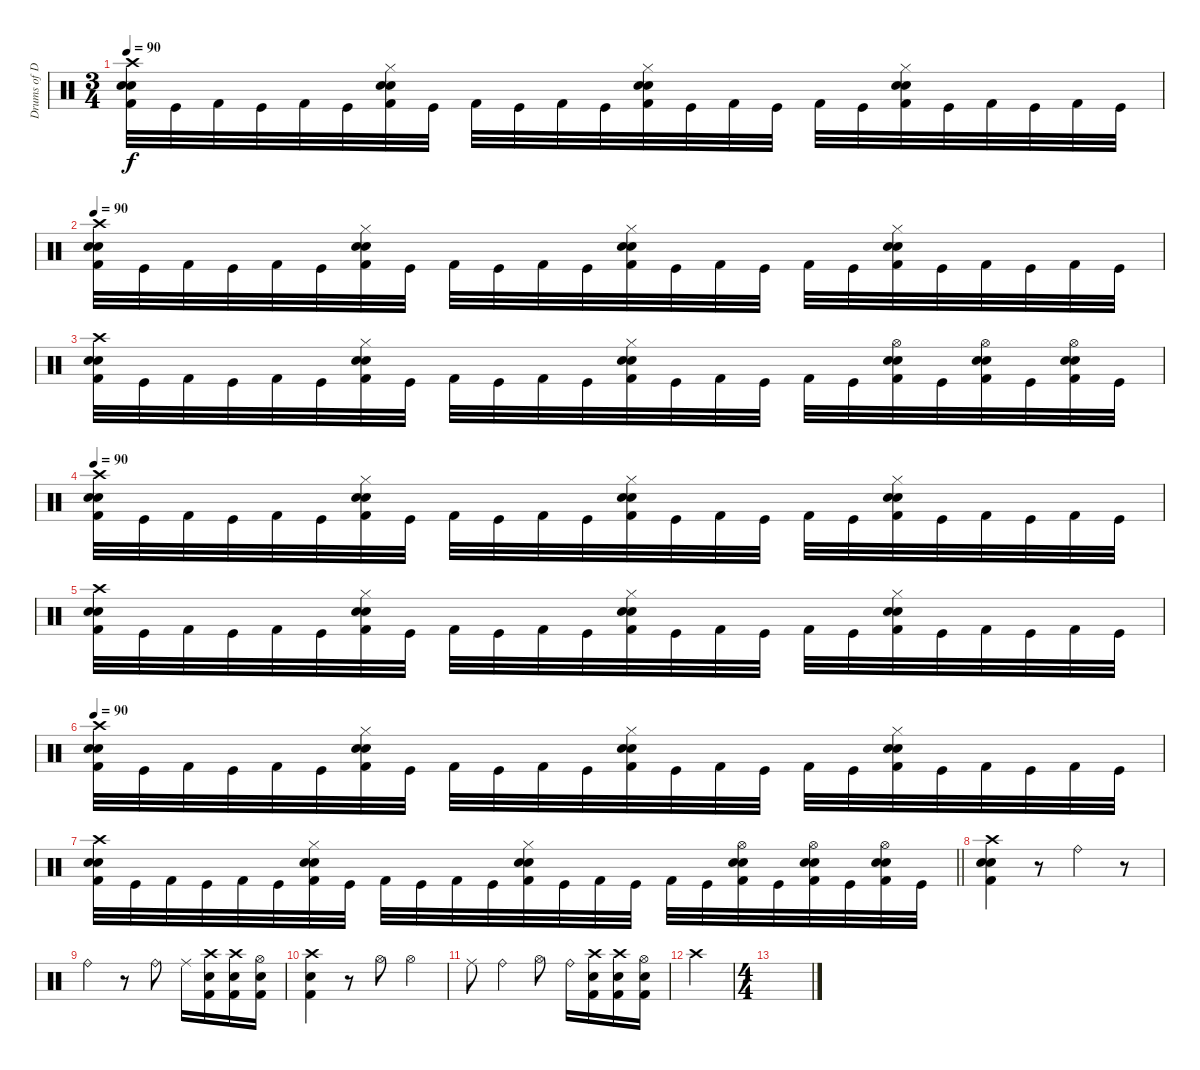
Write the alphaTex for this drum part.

\track ("Drums of Doom" "Drums of D") {instrument percussion}
\staff {score}
\articulation defaults
\ts (3 4)
\tempo 90
\clef neutral
\ks c
("Crash high (hit)" "Electric Snare (hit)" "Snare (hit) 2" "Kick (hit) 2").32{dy f} "Kick (hit)".32 "Kick (hit) 2".32 "Kick (hit)".32 "Kick (hit) 2".32 "Kick (hit)".32 ("Hi-Hat (closed)" "Electric Snare (hit)" "Snare (hit) 2" "Kick (hit) 2").32 "Kick (hit)".32 "Kick (hit) 2".32 "Kick (hit)".32 "Kick (hit) 2".32 "Kick (hit)".32 ("Hi-Hat (closed)" "Electric Snare (hit)" "Snare (hit) 2" "Kick (hit) 2").32 "Kick (hit)".32 "Kick (hit) 2".32 "Kick (hit)".32 "Kick (hit) 2".32 "Kick (hit)".32 ("Hi-Hat (closed)" "Electric Snare (hit)" "Snare (hit) 2" "Kick (hit) 2").32 "Kick (hit)".32 "Kick (hit) 2".32 "Kick (hit)".32 "Kick (hit) 2".32 "Kick (hit)".32 |
\tempo 90
("Crash high (hit)" "Electric Snare (hit)" "Snare (hit) 2" "Kick (hit) 2").32 "Kick (hit)".32 "Kick (hit) 2".32 "Kick (hit)".32 "Kick (hit) 2".32 "Kick (hit)".32 ("Hi-Hat (closed)" "Electric Snare (hit)" "Snare (hit) 2" "Kick (hit) 2").32 "Kick (hit)".32 "Kick (hit) 2".32 "Kick (hit)".32 "Kick (hit) 2".32 "Kick (hit)".32 ("Hi-Hat (closed)" "Electric Snare (hit)" "Snare (hit) 2" "Kick (hit) 2").32 "Kick (hit)".32 "Kick (hit) 2".32 "Kick (hit)".32 "Kick (hit) 2".32 "Kick (hit)".32 ("Hi-Hat (closed)" "Electric Snare (hit)" "Snare (hit) 2" "Kick (hit) 2").32 "Kick (hit)".32 "Kick (hit) 2".32 "Kick (hit)".32 "Kick (hit) 2".32 "Kick (hit)".32 |
("Crash high (hit)" "Electric Snare (hit)" "Snare (hit) 2" "Kick (hit) 2").32 "Kick (hit)".32 "Kick (hit) 2".32 "Kick (hit)".32 "Kick (hit) 2".32 "Kick (hit)".32 ("Hi-Hat (closed)" "Electric Snare (hit)" "Snare (hit) 2" "Kick (hit) 2").32 "Kick (hit)".32 "Kick (hit) 2".32 "Kick (hit)".32 "Kick (hit) 2".32 "Kick (hit)".32 ("Hi-Hat (closed)" "Electric Snare (hit)" "Snare (hit) 2" "Kick (hit) 2").32 "Kick (hit)".32 "Kick (hit) 2".32 "Kick (hit)".32 "Kick (hit) 2".32 "Kick (hit)".32 ("Hi-Hat (open)" "Electric Snare (hit)" "Snare (hit) 2" "Kick (hit) 2").32 "Kick (hit)".32 ("Hi-Hat (open)" "Electric Snare (hit)" "Snare (hit) 2" "Kick (hit) 2").32 "Kick (hit)".32 ("Hi-Hat (open)" "Electric Snare (hit)" "Snare (hit) 2" "Kick (hit) 2").32 "Kick (hit)".32 |
\tempo 90
("Crash high (hit)" "Electric Snare (hit)" "Snare (hit) 2" "Kick (hit) 2").32 "Kick (hit)".32 "Kick (hit) 2".32 "Kick (hit)".32 "Kick (hit) 2".32 "Kick (hit)".32 ("Hi-Hat (closed)" "Electric Snare (hit)" "Snare (hit) 2" "Kick (hit) 2").32 "Kick (hit)".32 "Kick (hit) 2".32 "Kick (hit)".32 "Kick (hit) 2".32 "Kick (hit)".32 ("Hi-Hat (closed)" "Electric Snare (hit)" "Snare (hit) 2" "Kick (hit) 2").32 "Kick (hit)".32 "Kick (hit) 2".32 "Kick (hit)".32 "Kick (hit) 2".32 "Kick (hit)".32 ("Hi-Hat (closed)" "Electric Snare (hit)" "Snare (hit) 2" "Kick (hit) 2").32 "Kick (hit)".32 "Kick (hit) 2".32 "Kick (hit)".32 "Kick (hit) 2".32 "Kick (hit)".32 |
("Crash high (hit)" "Electric Snare (hit)" "Snare (hit) 2" "Kick (hit) 2").32 "Kick (hit)".32 "Kick (hit) 2".32 "Kick (hit)".32 "Kick (hit) 2".32 "Kick (hit)".32 ("Hi-Hat (closed)" "Electric Snare (hit)" "Snare (hit) 2" "Kick (hit) 2").32 "Kick (hit)".32 "Kick (hit) 2".32 "Kick (hit)".32 "Kick (hit) 2".32 "Kick (hit)".32 ("Hi-Hat (closed)" "Electric Snare (hit)" "Snare (hit) 2" "Kick (hit) 2").32 "Kick (hit)".32 "Kick (hit) 2".32 "Kick (hit)".32 "Kick (hit) 2".32 "Kick (hit)".32 ("Hi-Hat (closed)" "Electric Snare (hit)" "Snare (hit) 2" "Kick (hit) 2").32 "Kick (hit)".32 "Kick (hit) 2".32 "Kick (hit)".32 "Kick (hit) 2".32 "Kick (hit)".32 |
\tempo 90
("Crash high (hit)" "Electric Snare (hit)" "Snare (hit) 2" "Kick (hit) 2").32 "Kick (hit)".32 "Kick (hit) 2".32 "Kick (hit)".32 "Kick (hit) 2".32 "Kick (hit)".32 ("Hi-Hat (closed)" "Electric Snare (hit)" "Snare (hit) 2" "Kick (hit) 2").32 "Kick (hit)".32 "Kick (hit) 2".32 "Kick (hit)".32 "Kick (hit) 2".32 "Kick (hit)".32 ("Hi-Hat (closed)" "Electric Snare (hit)" "Snare (hit) 2" "Kick (hit) 2").32 "Kick (hit)".32 "Kick (hit) 2".32 "Kick (hit)".32 "Kick (hit) 2".32 "Kick (hit)".32 ("Hi-Hat (closed)" "Electric Snare (hit)" "Snare (hit) 2" "Kick (hit) 2").32 "Kick (hit)".32 "Kick (hit) 2".32 "Kick (hit)".32 "Kick (hit) 2".32 "Kick (hit)".32 |
\barLineRight lightlight
("Crash high (hit)" "Electric Snare (hit)" "Snare (hit) 2" "Kick (hit) 2").32 "Kick (hit)".32 "Kick (hit) 2".32 "Kick (hit)".32 "Kick (hit) 2".32 "Kick (hit)".32 ("Hi-Hat (closed)" "Electric Snare (hit)" "Snare (hit) 2" "Kick (hit) 2").32 "Kick (hit)".32 "Kick (hit) 2".32 "Kick (hit)".32 "Kick (hit) 2".32 "Kick (hit)".32 ("Hi-Hat (closed)" "Electric Snare (hit)" "Snare (hit) 2" "Kick (hit) 2").32 "Kick (hit)".32 "Kick (hit) 2".32 "Kick (hit)".32 "Kick (hit) 2".32 "Kick (hit)".32 ("Hi-Hat (open)" "Electric Snare (hit)" "Snare (hit) 2" "Kick (hit) 2").32 "Kick (hit)".32 ("Hi-Hat (open)" "Electric Snare (hit)" "Snare (hit) 2" "Kick (hit) 2").32 "Kick (hit)".32 ("Hi-Hat (open)" "Electric Snare (hit)" "Snare (hit) 2" "Kick (hit) 2").32 "Kick (hit)".32 |
("Crash high (hit)" "Electric Snare (hit)" "Snare (hit) 2" "Kick (hit) 2").4 r.8 "Ride (bell)".4 r.8 |
"Ride (bell)".4 r.8 "Ride (bell)".8 "Ride (middle)".16 ("Crash high (hit)" "Electric Snare (hit)" "Kick (hit) 2").16 ("Crash high (hit)" "Electric Snare (hit)" "Kick (hit) 2").16 ("Hi-Hat (open)" "Electric Snare (hit)" "Kick (hit) 2").16 |
("Crash high (hit)" "Electric Snare (hit)" "Kick (hit) 2").4 r.8 "Hi-Hat (open)".8 "Hi-Hat (open)".4 |
"Ride (middle)".8 "Ride (bell)".4 "Hi-Hat (open)".8 "Ride (bell)".16 ("Crash high (hit)" "Electric Snare (hit)" "Kick (hit) 2").16 ("Crash high (hit)" "Electric Snare (hit)" "Kick (hit) 2").16 ("Hi-Hat (open)" "Electric Snare (hit)" "Kick (hit) 2").16 |
"Crash high (hit)".4 |
\ts (4 4)
